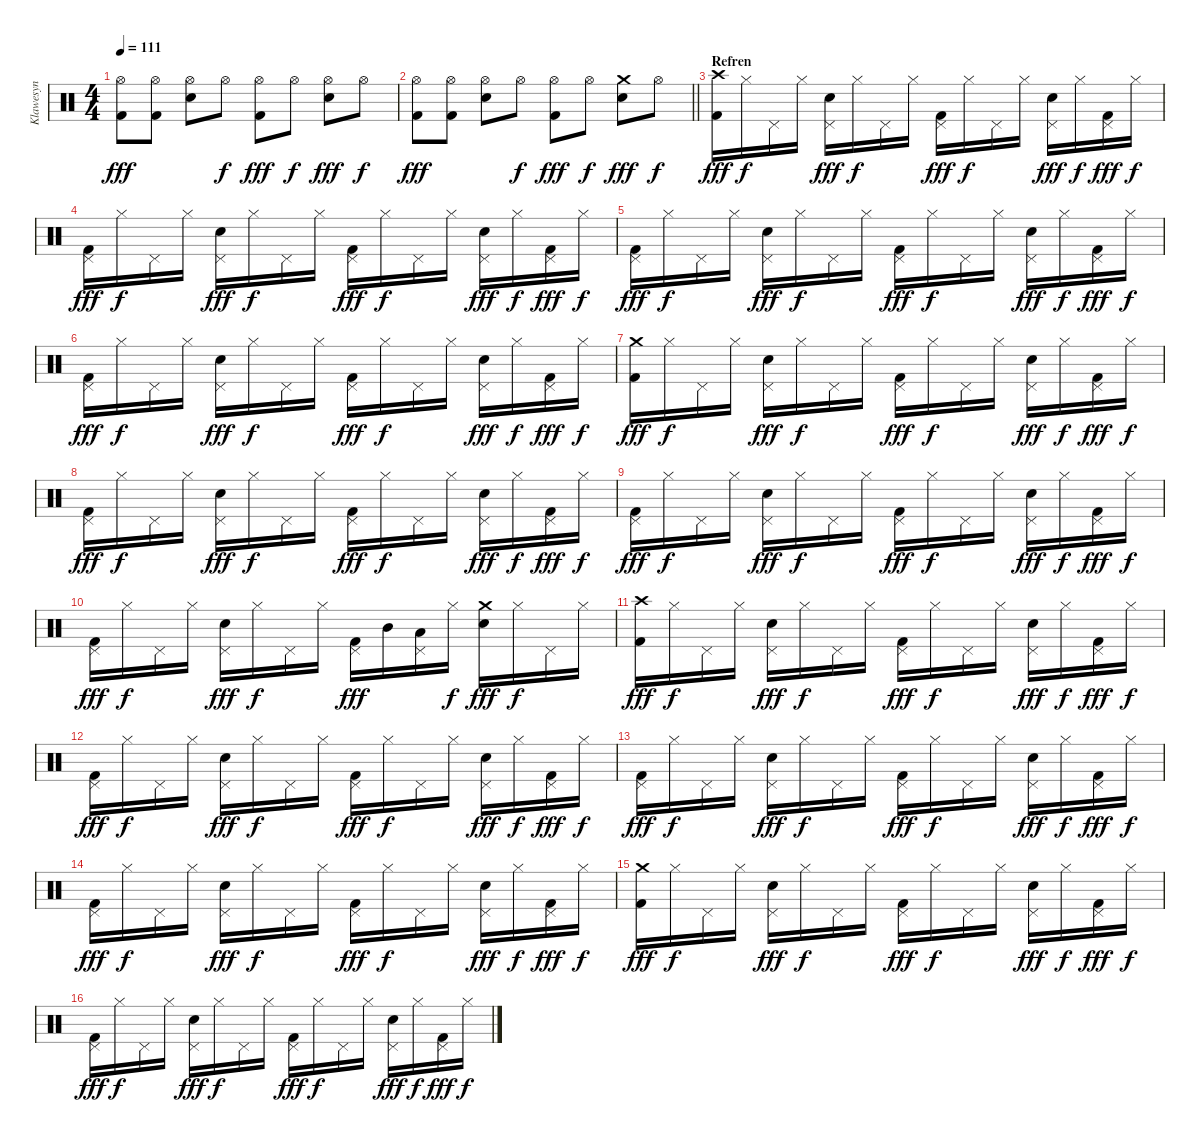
\track ("Klawesyn" "Klawesyn") {instrument percussion}
\staff {score}
\articulation defaults
\ts (4 4)
\tempo 111
\clef neutral
\ks c
("Hi-Hat (open)" "Kick (hit) 2").8{dy fff} ("Hi-Hat (open)" "Kick (hit) 2").8 ("Hi-Hat (open)" "Snare (hit) 2").8 "Hi-Hat (open)".8{dy f} ("Hi-Hat (open)" "Kick (hit) 2").8{dy fff} "Hi-Hat (open)".8{dy f} ("Hi-Hat (open)" "Snare (hit) 2").8{dy fff} "Hi-Hat (open)".8{dy f} |
\barLineRight lightlight
("Hi-Hat (open)" "Kick (hit) 2").8{dy fff} ("Hi-Hat (open)" "Kick (hit) 2").8 ("Hi-Hat (open)" "Snare (hit) 2").8 "Hi-Hat (open)".8{dy f} ("Hi-Hat (open)" "Kick (hit) 2").8{dy fff} "Hi-Hat (open)".8{dy f} ("Crash medium (hit)" "Snare (hit) 2").8{dy fff} "Hi-Hat (open)".8{dy f} |
\section ("" "Refren")
("Crash high (hit)" "Kick (hit) 2").16{dy fff} "Hi-Hat (closed)".16{dy f} "Pedal Hi-Hat (hit)".16 "Hi-Hat (closed)".16 ("Pedal Hi-Hat (hit)" "Snare (hit) 2").16{dy fff} "Hi-Hat (closed)".16{dy f} "Pedal Hi-Hat (hit)".16 "Hi-Hat (closed)".16 ("Pedal Hi-Hat (hit)" "Kick (hit) 2").16{dy fff} "Hi-Hat (closed)".16{dy f} "Pedal Hi-Hat (hit)".16 "Hi-Hat (closed)".16 ("Pedal Hi-Hat (hit)" "Snare (hit) 2").16{dy fff} "Hi-Hat (closed)".16{dy f} ("Pedal Hi-Hat (hit)" "Kick (hit) 2").16{dy fff} "Hi-Hat (closed)".16{dy f} |
("Pedal Hi-Hat (hit)" "Kick (hit) 2").16{dy fff} "Hi-Hat (closed)".16{dy f} "Pedal Hi-Hat (hit)".16 "Hi-Hat (closed)".16 ("Pedal Hi-Hat (hit)" "Snare (hit) 2").16{dy fff} "Hi-Hat (closed)".16{dy f} "Pedal Hi-Hat (hit)".16 "Hi-Hat (closed)".16 ("Pedal Hi-Hat (hit)" "Kick (hit) 2").16{dy fff} "Hi-Hat (closed)".16{dy f} "Pedal Hi-Hat (hit)".16 "Hi-Hat (closed)".16 ("Pedal Hi-Hat (hit)" "Snare (hit) 2").16{dy fff} "Hi-Hat (closed)".16{dy f} ("Pedal Hi-Hat (hit)" "Kick (hit) 2").16{dy fff} "Hi-Hat (closed)".16{dy f} |
("Pedal Hi-Hat (hit)" "Kick (hit) 2").16{dy fff} "Hi-Hat (closed)".16{dy f} "Pedal Hi-Hat (hit)".16 "Hi-Hat (closed)".16 ("Pedal Hi-Hat (hit)" "Snare (hit) 2").16{dy fff} "Hi-Hat (closed)".16{dy f} "Pedal Hi-Hat (hit)".16 "Hi-Hat (closed)".16 ("Pedal Hi-Hat (hit)" "Kick (hit) 2").16{dy fff} "Hi-Hat (closed)".16{dy f} "Pedal Hi-Hat (hit)".16 "Hi-Hat (closed)".16 ("Pedal Hi-Hat (hit)" "Snare (hit) 2").16{dy fff} "Hi-Hat (closed)".16{dy f} ("Pedal Hi-Hat (hit)" "Kick (hit) 2").16{dy fff} "Hi-Hat (closed)".16{dy f} |
("Pedal Hi-Hat (hit)" "Kick (hit) 2").16{dy fff} "Hi-Hat (closed)".16{dy f} "Pedal Hi-Hat (hit)".16 "Hi-Hat (closed)".16 ("Pedal Hi-Hat (hit)" "Snare (hit) 2").16{dy fff} "Hi-Hat (closed)".16{dy f} "Pedal Hi-Hat (hit)".16 "Hi-Hat (closed)".16 ("Pedal Hi-Hat (hit)" "Kick (hit) 2").16{dy fff} "Hi-Hat (closed)".16{dy f} "Pedal Hi-Hat (hit)".16 "Hi-Hat (closed)".16 ("Pedal Hi-Hat (hit)" "Snare (hit) 2").16{dy fff} "Hi-Hat (closed)".16{dy f} ("Pedal Hi-Hat (hit)" "Kick (hit) 2").16{dy fff} "Hi-Hat (closed)".16{dy f} |
("Crash medium (hit)" "Kick (hit) 2").16{dy fff} "Hi-Hat (closed)".16{dy f} "Pedal Hi-Hat (hit)".16 "Hi-Hat (closed)".16 ("Pedal Hi-Hat (hit)" "Snare (hit) 2").16{dy fff} "Hi-Hat (closed)".16{dy f} "Pedal Hi-Hat (hit)".16 "Hi-Hat (closed)".16 ("Pedal Hi-Hat (hit)" "Kick (hit) 2").16{dy fff} "Hi-Hat (closed)".16{dy f} "Pedal Hi-Hat (hit)".16 "Hi-Hat (closed)".16 ("Pedal Hi-Hat (hit)" "Snare (hit) 2").16{dy fff} "Hi-Hat (closed)".16{dy f} ("Pedal Hi-Hat (hit)" "Kick (hit) 2").16{dy fff} "Hi-Hat (closed)".16{dy f} |
("Pedal Hi-Hat (hit)" "Kick (hit) 2").16{dy fff} "Hi-Hat (closed)".16{dy f} "Pedal Hi-Hat (hit)".16 "Hi-Hat (closed)".16 ("Pedal Hi-Hat (hit)" "Snare (hit) 2").16{dy fff} "Hi-Hat (closed)".16{dy f} "Pedal Hi-Hat (hit)".16 "Hi-Hat (closed)".16 ("Pedal Hi-Hat (hit)" "Kick (hit) 2").16{dy fff} "Hi-Hat (closed)".16{dy f} "Pedal Hi-Hat (hit)".16 "Hi-Hat (closed)".16 ("Pedal Hi-Hat (hit)" "Snare (hit) 2").16{dy fff} "Hi-Hat (closed)".16{dy f} ("Pedal Hi-Hat (hit)" "Kick (hit) 2").16{dy fff} "Hi-Hat (closed)".16{dy f} |
("Pedal Hi-Hat (hit)" "Kick (hit) 2").16{dy fff} "Hi-Hat (closed)".16{dy f} "Pedal Hi-Hat (hit)".16 "Hi-Hat (closed)".16 ("Pedal Hi-Hat (hit)" "Snare (hit) 2").16{dy fff} "Hi-Hat (closed)".16{dy f} "Pedal Hi-Hat (hit)".16 "Hi-Hat (closed)".16 ("Pedal Hi-Hat (hit)" "Kick (hit) 2").16{dy fff} "Hi-Hat (closed)".16{dy f} "Pedal Hi-Hat (hit)".16 "Hi-Hat (closed)".16 ("Pedal Hi-Hat (hit)" "Snare (hit) 2").16{dy fff} "Hi-Hat (closed)".16{dy f} ("Pedal Hi-Hat (hit)" "Kick (hit) 2").16{dy fff} "Hi-Hat (closed)".16{dy f} |
("Pedal Hi-Hat (hit)" "Kick (hit) 2").16{dy fff} "Hi-Hat (closed)".16{dy f} "Pedal Hi-Hat (hit)".16 "Hi-Hat (closed)".16 ("Pedal Hi-Hat (hit)" "Snare (hit) 2").16{dy fff} "Hi-Hat (closed)".16{dy f} "Pedal Hi-Hat (hit)".16 "Hi-Hat (closed)".16 ("Pedal Hi-Hat (hit)" "Kick (hit) 2").16{dy fff} "Mid Tom (hit)".16 ("Pedal Hi-Hat (hit)" "Low Tom (hit)").16 "Hi-Hat (closed)".16{dy f} ("Crash medium (hit)" "Snare (hit) 2").16{dy fff} "Hi-Hat (closed)".16{dy f} "Pedal Hi-Hat (hit)".16 "Hi-Hat (closed)".16 |
("Crash high (hit)" "Kick (hit) 2").16{dy fff} "Hi-Hat (closed)".16{dy f} "Pedal Hi-Hat (hit)".16 "Hi-Hat (closed)".16 ("Pedal Hi-Hat (hit)" "Snare (hit) 2").16{dy fff} "Hi-Hat (closed)".16{dy f} "Pedal Hi-Hat (hit)".16 "Hi-Hat (closed)".16 ("Pedal Hi-Hat (hit)" "Kick (hit) 2").16{dy fff} "Hi-Hat (closed)".16{dy f} "Pedal Hi-Hat (hit)".16 "Hi-Hat (closed)".16 ("Pedal Hi-Hat (hit)" "Snare (hit) 2").16{dy fff} "Hi-Hat (closed)".16{dy f} ("Pedal Hi-Hat (hit)" "Kick (hit) 2").16{dy fff} "Hi-Hat (closed)".16{dy f} |
("Pedal Hi-Hat (hit)" "Kick (hit) 2").16{dy fff} "Hi-Hat (closed)".16{dy f} "Pedal Hi-Hat (hit)".16 "Hi-Hat (closed)".16 ("Pedal Hi-Hat (hit)" "Snare (hit) 2").16{dy fff} "Hi-Hat (closed)".16{dy f} "Pedal Hi-Hat (hit)".16 "Hi-Hat (closed)".16 ("Pedal Hi-Hat (hit)" "Kick (hit) 2").16{dy fff} "Hi-Hat (closed)".16{dy f} "Pedal Hi-Hat (hit)".16 "Hi-Hat (closed)".16 ("Pedal Hi-Hat (hit)" "Snare (hit) 2").16{dy fff} "Hi-Hat (closed)".16{dy f} ("Pedal Hi-Hat (hit)" "Kick (hit) 2").16{dy fff} "Hi-Hat (closed)".16{dy f} |
("Pedal Hi-Hat (hit)" "Kick (hit) 2").16{dy fff} "Hi-Hat (closed)".16{dy f} "Pedal Hi-Hat (hit)".16 "Hi-Hat (closed)".16 ("Pedal Hi-Hat (hit)" "Snare (hit) 2").16{dy fff} "Hi-Hat (closed)".16{dy f} "Pedal Hi-Hat (hit)".16 "Hi-Hat (closed)".16 ("Pedal Hi-Hat (hit)" "Kick (hit) 2").16{dy fff} "Hi-Hat (closed)".16{dy f} "Pedal Hi-Hat (hit)".16 "Hi-Hat (closed)".16 ("Pedal Hi-Hat (hit)" "Snare (hit) 2").16{dy fff} "Hi-Hat (closed)".16{dy f} ("Pedal Hi-Hat (hit)" "Kick (hit) 2").16{dy fff} "Hi-Hat (closed)".16{dy f} |
("Pedal Hi-Hat (hit)" "Kick (hit) 2").16{dy fff} "Hi-Hat (closed)".16{dy f} "Pedal Hi-Hat (hit)".16 "Hi-Hat (closed)".16 ("Pedal Hi-Hat (hit)" "Snare (hit) 2").16{dy fff} "Hi-Hat (closed)".16{dy f} "Pedal Hi-Hat (hit)".16 "Hi-Hat (closed)".16 ("Pedal Hi-Hat (hit)" "Kick (hit) 2").16{dy fff} "Hi-Hat (closed)".16{dy f} "Pedal Hi-Hat (hit)".16 "Hi-Hat (closed)".16 ("Pedal Hi-Hat (hit)" "Snare (hit) 2").16{dy fff} "Hi-Hat (closed)".16{dy f} ("Pedal Hi-Hat (hit)" "Kick (hit) 2").16{dy fff} "Hi-Hat (closed)".16{dy f} |
("Crash medium (hit)" "Kick (hit) 2").16{dy fff} "Hi-Hat (closed)".16{dy f} "Pedal Hi-Hat (hit)".16 "Hi-Hat (closed)".16 ("Pedal Hi-Hat (hit)" "Snare (hit) 2").16{dy fff} "Hi-Hat (closed)".16{dy f} "Pedal Hi-Hat (hit)".16 "Hi-Hat (closed)".16 ("Pedal Hi-Hat (hit)" "Kick (hit) 2").16{dy fff} "Hi-Hat (closed)".16{dy f} "Pedal Hi-Hat (hit)".16 "Hi-Hat (closed)".16 ("Pedal Hi-Hat (hit)" "Snare (hit) 2").16{dy fff} "Hi-Hat (closed)".16{dy f} ("Pedal Hi-Hat (hit)" "Kick (hit) 2").16{dy fff} "Hi-Hat (closed)".16{dy f} |
("Pedal Hi-Hat (hit)" "Kick (hit) 2").16{dy fff} "Hi-Hat (closed)".16{dy f} "Pedal Hi-Hat (hit)".16 "Hi-Hat (closed)".16 ("Pedal Hi-Hat (hit)" "Snare (hit) 2").16{dy fff} "Hi-Hat (closed)".16{dy f} "Pedal Hi-Hat (hit)".16 "Hi-Hat (closed)".16 ("Pedal Hi-Hat (hit)" "Kick (hit) 2").16{dy fff} "Hi-Hat (closed)".16{dy f} "Pedal Hi-Hat (hit)".16 "Hi-Hat (closed)".16 ("Pedal Hi-Hat (hit)" "Snare (hit) 2").16{dy fff} "Hi-Hat (closed)".16{dy f} ("Pedal Hi-Hat (hit)" "Kick (hit) 2").16{dy fff} "Hi-Hat (closed)".16{dy f}
